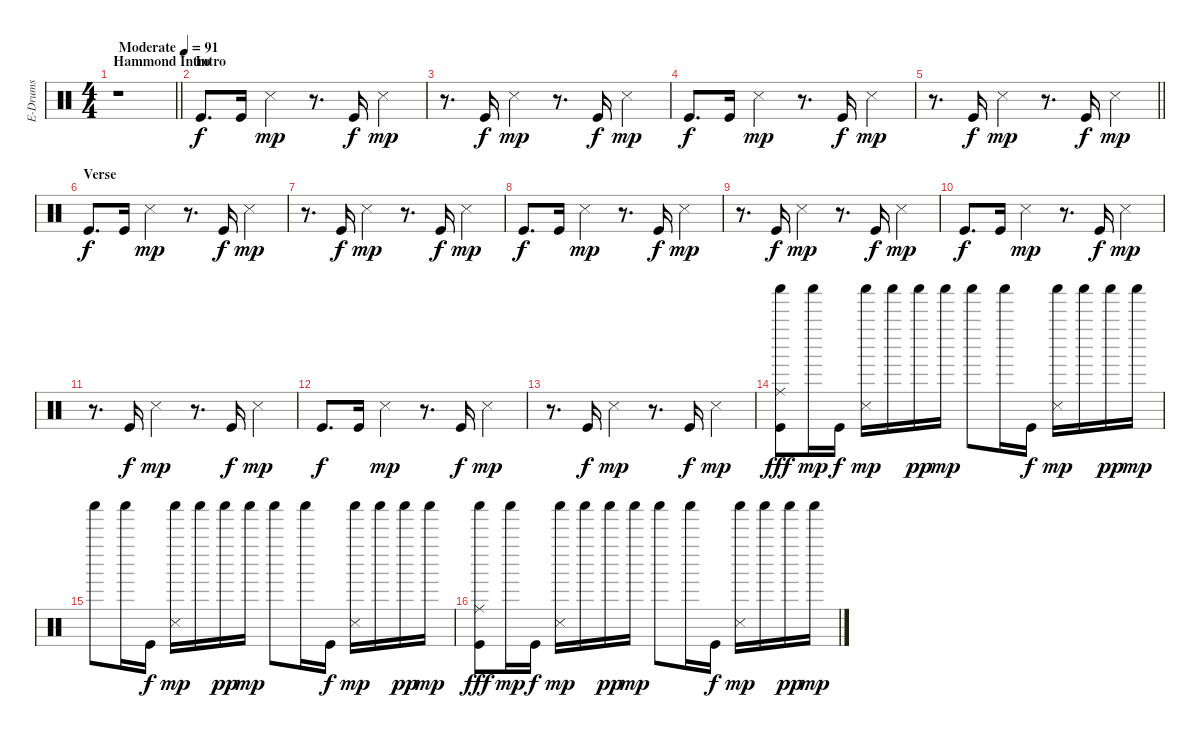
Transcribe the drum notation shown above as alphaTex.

\track ("E-Drums" "E-Drums") {instrument percussion}
\staff {score}
\articulation defaults
\ts (4 4)
\section ("" "Hammond Intro")
\tempo (91 "Moderate")
\clef neutral
\barLineRight lightlight
\ks c
r.1{dy f} |
\section ("" "Intro")
"Kick (hit)".8{d} "Kick (hit)".16 "Snare (side stick) 3".4{dy mp} r.8{d} "Kick (hit)".16{dy f} "Snare (side stick) 3".4{dy mp} |
r.8{d} "Kick (hit)".16{dy f} "Snare (side stick) 3".4{dy mp} r.8{d} "Kick (hit)".16{dy f} "Snare (side stick) 3".4{dy mp} |
"Kick (hit)".8{d dy f} "Kick (hit)".16 "Snare (side stick) 3".4{dy mp} r.8{d} "Kick (hit)".16{dy f} "Snare (side stick) 3".4{dy mp} |
\barLineRight lightlight
r.8{d} "Kick (hit)".16{dy f} "Snare (side stick) 3".4{dy mp} r.8{d} "Kick (hit)".16{dy f} "Snare (side stick) 3".4{dy mp} |
\section ("" "Verse")
"Kick (hit)".8{d dy f} "Kick (hit)".16 "Snare (side stick) 3".4{dy mp} r.8{d} "Kick (hit)".16{dy f} "Snare (side stick) 3".4{dy mp} |
r.8{d} "Kick (hit)".16{dy f} "Snare (side stick) 3".4{dy mp} r.8{d} "Kick (hit)".16{dy f} "Snare (side stick) 3".4{dy mp} |
"Kick (hit)".8{d dy f} "Kick (hit)".16 "Snare (side stick) 3".4{dy mp} r.8{d} "Kick (hit)".16{dy f} "Snare (side stick) 3".4{dy mp} |
r.8{d} "Kick (hit)".16{dy f} "Snare (side stick) 3".4{dy mp} r.8{d} "Kick (hit)".16{dy f} "Snare (side stick) 3".4{dy mp} |
"Kick (hit)".8{d dy f} "Kick (hit)".16 "Snare (side stick) 3".4{dy mp} r.8{d} "Kick (hit)".16{dy f} "Snare (side stick) 3".4{dy mp} |
r.8{d} "Kick (hit)".16{dy f} "Snare (side stick) 3".4{dy mp} r.8{d} "Kick (hit)".16{dy f} "Snare (side stick) 3".4{dy mp} |
"Kick (hit)".8{d dy f} "Kick (hit)".16 "Snare (side stick) 3".4{dy mp} r.8{d} "Kick (hit)".16{dy f} "Snare (side stick) 3".4{dy mp} |
r.8{d} "Kick (hit)".16{dy f} "Snare (side stick) 3".4{dy mp} r.8{d} "Kick (hit)".16{dy f} "Snare (side stick) 3".4{dy mp} |
("Shaker (hit)" "Ride (middle)" "Kick (hit)").8{dy fff} "Shaker (hit)".16{dy mp} "Kick (hit)".16{dy f} ("Shaker (hit)" "Snare (side stick) 3").16{dy mp} "Shaker (hit)".16 "Shaker (hit)".16{dy pp} "Shaker (hit)".16{dy mp} "Shaker (hit)".8 "Shaker (hit)".16 "Kick (hit)".16{dy f} ("Shaker (hit)" "Snare (side stick) 3").16{dy mp} "Shaker (hit)".16 "Shaker (hit)".16{dy pp} "Shaker (hit)".16{dy mp} |
"Shaker (hit)".8 "Shaker (hit)".16 "Kick (hit)".16{dy f} ("Shaker (hit)" "Snare (side stick) 3").16{dy mp} "Shaker (hit)".16 "Shaker (hit)".16{dy pp} "Shaker (hit)".16{dy mp} "Shaker (hit)".8 "Shaker (hit)".16 "Kick (hit)".16{dy f} ("Shaker (hit)" "Snare (side stick) 3").16{dy mp} "Shaker (hit)".16 "Shaker (hit)".16{dy pp} "Shaker (hit)".16{dy mp} |
("Shaker (hit)" "Ride (middle)" "Kick (hit)").8{dy fff} "Shaker (hit)".16{dy mp} "Kick (hit)".16{dy f} ("Shaker (hit)" "Snare (side stick) 3").16{dy mp} "Shaker (hit)".16 "Shaker (hit)".16{dy pp} "Shaker (hit)".16{dy mp} "Shaker (hit)".8 "Shaker (hit)".16 "Kick (hit)".16{dy f} ("Shaker (hit)" "Snare (side stick) 3").16{dy mp} "Shaker (hit)".16 "Shaker (hit)".16{dy pp} "Shaker (hit)".16{dy mp}
